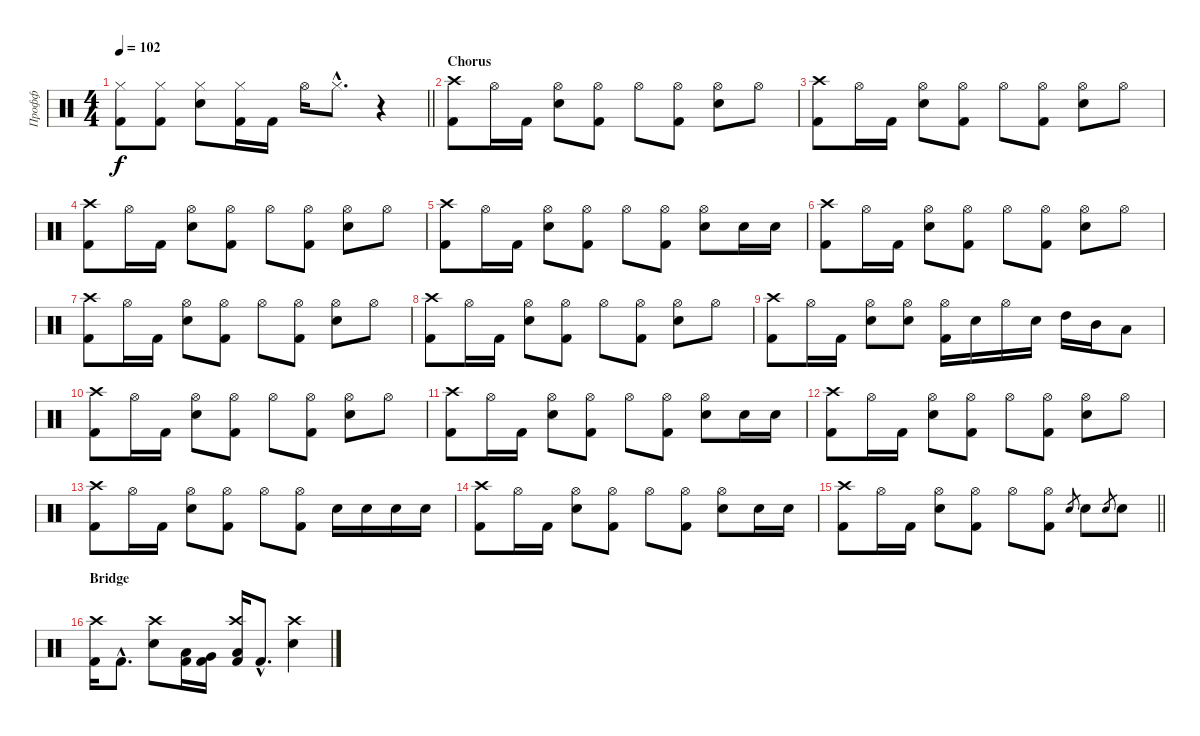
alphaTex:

\track ("Профф" "Профф") {instrument percussion}
\staff {score}
\articulation defaults
\ts (4 4)
\tempo 102
\clef neutral
\barLineRight lightlight
\ks c
("Hi-Hat (closed)" "Kick (hit) 2").8{dy f} ("Hi-Hat (closed)" "Kick (hit) 2").8 ("Hi-Hat (closed)" "Snare (hit) 2").8 ("Hi-Hat (closed)" "Kick (hit) 2").16 "Kick (hit) 2".16 "Hi-Hat (open)".16 "Hi-Hat (closed)"{hac}.8{d} r.4 |
\section ("" "Chorus")
("Crash high (hit)" "Kick (hit) 2").8 "Hi-Hat (open)".16 "Kick (hit) 2".16 ("Hi-Hat (open)" "Snare (hit) 2").8 ("Hi-Hat (open)" "Kick (hit) 2").8 "Hi-Hat (open)".8 ("Hi-Hat (open)" "Kick (hit) 2").8 ("Hi-Hat (open)" "Snare (hit) 2").8 "Hi-Hat (open)".8 |
("Crash high (hit)" "Kick (hit) 2").8 "Hi-Hat (open)".16 "Kick (hit) 2".16 ("Hi-Hat (open)" "Snare (hit) 2").8 ("Hi-Hat (open)" "Kick (hit) 2").8 "Hi-Hat (open)".8 ("Hi-Hat (open)" "Kick (hit) 2").8 ("Hi-Hat (open)" "Snare (hit) 2").8 "Hi-Hat (open)".8 |
("Crash high (hit)" "Kick (hit) 2").8 "Hi-Hat (open)".16 "Kick (hit) 2".16 ("Hi-Hat (open)" "Snare (hit) 2").8 ("Hi-Hat (open)" "Kick (hit) 2").8 "Hi-Hat (open)".8 ("Hi-Hat (open)" "Kick (hit) 2").8 ("Hi-Hat (open)" "Snare (hit) 2").8 "Hi-Hat (open)".8 |
("Crash high (hit)" "Kick (hit) 2").8 "Hi-Hat (open)".16 "Kick (hit) 2".16 ("Hi-Hat (open)" "Snare (hit) 2").8 ("Hi-Hat (open)" "Kick (hit) 2").8 "Hi-Hat (open)".8 ("Hi-Hat (open)" "Kick (hit) 2").8 ("Hi-Hat (open)" "Snare (hit) 2").8 "Snare (hit) 2".16 "Snare (hit) 2".16 |
("Crash high (hit)" "Kick (hit) 2").8 "Hi-Hat (open)".16 "Kick (hit) 2".16 ("Hi-Hat (open)" "Snare (hit) 2").8 ("Hi-Hat (open)" "Kick (hit) 2").8 "Hi-Hat (open)".8 ("Hi-Hat (open)" "Kick (hit) 2").8 ("Hi-Hat (open)" "Snare (hit) 2").8 "Hi-Hat (open)".8 |
("Crash high (hit)" "Kick (hit) 2").8 "Hi-Hat (open)".16 "Kick (hit) 2".16 ("Hi-Hat (open)" "Snare (hit) 2").8 ("Hi-Hat (open)" "Kick (hit) 2").8 "Hi-Hat (open)".8 ("Hi-Hat (open)" "Kick (hit) 2").8 ("Hi-Hat (open)" "Snare (hit) 2").8 "Hi-Hat (open)".8 |
("Crash high (hit)" "Kick (hit) 2").8 "Hi-Hat (open)".16 "Kick (hit) 2".16 ("Hi-Hat (open)" "Snare (hit) 2").8 ("Hi-Hat (open)" "Kick (hit) 2").8 "Hi-Hat (open)".8 ("Hi-Hat (open)" "Kick (hit) 2").8 ("Hi-Hat (open)" "Snare (hit) 2").8 "Hi-Hat (open)".8 |
("Crash high (hit)" "Kick (hit) 2").8 "Hi-Hat (open)".16 "Kick (hit) 2".16 ("Hi-Hat (open)" "Snare (hit) 2").8 ("Hi-Hat (open)" "Snare (hit) 2").8 ("Hi-Hat (open)" "Kick (hit) 2").16 "Snare (hit) 2".16 "Hi-Hat (open)".16 "Snare (hit) 2".16 "High Tom (hit)".16 "Mid Tom (hit)".16 "Low Tom (hit)".8 |
("Crash high (hit)" "Kick (hit) 2").8 "Hi-Hat (open)".16 "Kick (hit) 2".16 ("Hi-Hat (open)" "Snare (hit) 2").8 ("Hi-Hat (open)" "Kick (hit) 2").8 "Hi-Hat (open)".8 ("Hi-Hat (open)" "Kick (hit) 2").8 ("Hi-Hat (open)" "Snare (hit) 2").8 "Hi-Hat (open)".8 |
("Crash high (hit)" "Kick (hit) 2").8 "Hi-Hat (open)".16 "Kick (hit) 2".16 ("Hi-Hat (open)" "Snare (hit) 2").8 ("Hi-Hat (open)" "Kick (hit) 2").8 "Hi-Hat (open)".8 ("Hi-Hat (open)" "Kick (hit) 2").8 ("Hi-Hat (open)" "Snare (hit) 2").8 "Snare (hit) 2".16 "Snare (hit) 2".16 |
("Crash high (hit)" "Kick (hit) 2").8 "Hi-Hat (open)".16 "Kick (hit) 2".16 ("Hi-Hat (open)" "Snare (hit) 2").8 ("Hi-Hat (open)" "Kick (hit) 2").8 "Hi-Hat (open)".8 ("Hi-Hat (open)" "Kick (hit) 2").8 ("Hi-Hat (open)" "Snare (hit) 2").8 "Hi-Hat (open)".8 |
("Crash high (hit)" "Kick (hit) 2").8 "Hi-Hat (open)".16 "Kick (hit) 2".16 ("Hi-Hat (open)" "Snare (hit) 2").8 ("Hi-Hat (open)" "Kick (hit) 2").8 "Hi-Hat (open)".8 ("Hi-Hat (open)" "Kick (hit) 2").8 "Snare (hit) 2".16 "Snare (hit) 2".16 "Snare (hit) 2".16 "Snare (hit) 2".16 |
("Crash high (hit)" "Kick (hit) 2").8 "Hi-Hat (open)".16 "Kick (hit) 2".16 ("Hi-Hat (open)" "Snare (hit) 2").8 ("Hi-Hat (open)" "Kick (hit) 2").8 "Hi-Hat (open)".8 ("Hi-Hat (open)" "Kick (hit) 2").8 ("Hi-Hat (open)" "Snare (hit) 2").8 "Snare (hit) 2".16 "Snare (hit) 2".16 |
\barLineRight lightlight
("Crash high (hit)" "Kick (hit) 2").8 "Hi-Hat (open)".16 "Kick (hit) 2".16 ("Hi-Hat (open)" "Snare (hit) 2").8 ("Hi-Hat (open)" "Kick (hit) 2").8 "Hi-Hat (open)".8 ("Hi-Hat (open)" "Kick (hit) 2").8 "Snare (hit) 2".8{gr} "Snare (hit) 2".8 "Snare (hit) 2".8{gr} "Snare (hit) 2".8 |
\section ("" "Bridge")
("Crash high (hit)" "Kick (hit) 2").16 "Kick (hit) 2"{hac}.8{d} ("Crash high (hit)" "Snare (hit) 2").8 ("Low Tom (hit)" "Kick (hit) 2").16 ("Very Low Tom (hit)" "Kick (hit) 2").16 ("Crash high (hit)" "Low Floor Tom (hit)" "Kick (hit) 2").16 "Kick (hit) 2"{hac}.8{d} ("Crash high (hit)" "Snare (hit) 2").4
